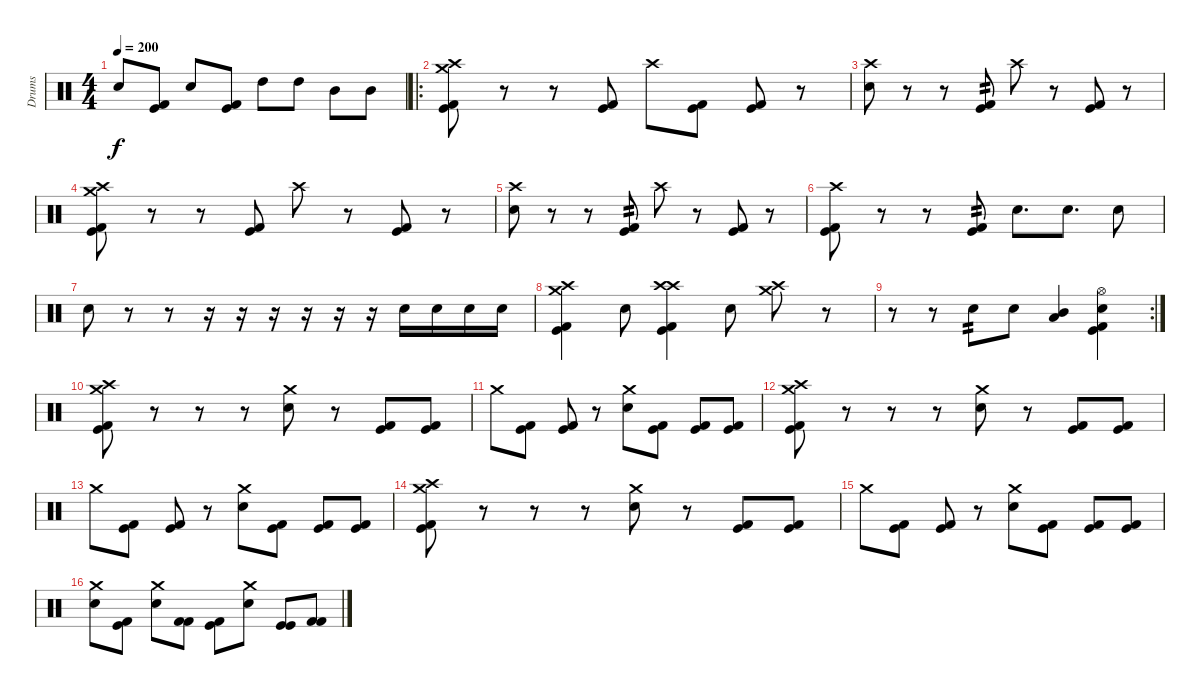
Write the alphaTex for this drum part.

\track ("Drums" "Drums") {instrument percussion}
\staff {score}
\articulation defaults
\ts (4 4)
\tempo 200
\clef neutral
\ks c "Electric Snare (hit)".8{dy f}
("Kick (hit) 2" "Kick (hit)").8 "Electric Snare (hit)".8 ("Kick (hit) 2" "Kick (hit)").8 "High Tom (hit)".8 "High Tom (hit)".8 "Mid Tom (hit)".8 "Mid Tom (hit)".8 |
\ro
("Crash medium (hit)" "Crash high (hit)" "Kick (hit) 2" "Kick (hit)").8 r.8 r.8 ("Kick (hit) 2" "Kick (hit)").8 "Crash high (hit)".8 ("Kick (hit) 2" "Kick (hit)").8 ("Kick (hit) 2" "Kick (hit)").8 r.8 |
("Crash high (hit)" "Electric Snare (hit)").8 r.8 r.8 ("Kick (hit) 2" "Kick (hit)").8{tp 2} "Crash high (hit)".8 r.8 ("Kick (hit) 2" "Kick (hit)").8 r.8 |
("Crash medium (hit)" "Crash high (hit)" "Kick (hit) 2" "Kick (hit)").8 r.8 r.8 ("Kick (hit) 2" "Kick (hit)").8 "Crash high (hit)".8 r.8 ("Kick (hit) 2" "Kick (hit)").8 r.8 |
("Crash high (hit)" "Electric Snare (hit)").8 r.8 r.8 ("Kick (hit) 2" "Kick (hit)").8{tp 2} "Crash high (hit)".8 r.8 ("Kick (hit) 2" "Kick (hit)").8 r.8 |
("Crash high (hit)" "Kick (hit) 2" "Kick (hit)").8 r.8 r.8 ("Kick (hit) 2" "Kick (hit)").8{tp 2} "Electric Snare (hit)".8{d} "Electric Snare (hit)".8{d} "Electric Snare (hit)".8 |
"Electric Snare (hit)".8 r.8 r.8 r.16 r.16 r.16 r.16 r.16 r.16 "Electric Snare (hit)".16 "Electric Snare (hit)".16 "Electric Snare (hit)".16 "Electric Snare (hit)".16 |
("Crash medium (hit)" "Crash high (hit)" "Kick (hit) 2" "Kick (hit)").4 "Electric Snare (hit)".8 ("Crash high (hit)" "Crash high (hit)" "Kick (hit) 2" "Kick (hit)").4 "Electric Snare (hit)".8 ("Crash medium (hit)" "Crash high (hit)").8 r.8 |
\rc 2
r.8 r.8 "Electric Snare (hit)".8{tp 2} "Electric Snare (hit)".8 ("Mid Tom (hit)" "Low Tom (hit)").4 ("Hi-Hat (open)" "Electric Snare (hit)" "Kick (hit) 2" "Kick (hit)").4 |
("Crash medium (hit)" "Crash high (hit)" "Kick (hit) 2" "Kick (hit)").8 r.8 r.8 r.8 ("Crash medium (hit)" "Electric Snare (hit)").8 r.8 ("Kick (hit) 2" "Kick (hit)").8 ("Kick (hit) 2" "Kick (hit)").8 |
"Crash medium (hit)".8 ("Kick (hit) 2" "Kick (hit)").8 ("Kick (hit) 2" "Kick (hit)").8 r.8 ("Crash medium (hit)" "Electric Snare (hit)").8 ("Kick (hit) 2" "Kick (hit)").8 ("Kick (hit) 2" "Kick (hit)").8 ("Kick (hit) 2" "Kick (hit)").8 |
("Crash medium (hit)" "Crash high (hit)" "Kick (hit) 2" "Kick (hit)").8 r.8 r.8 r.8 ("Crash medium (hit)" "Electric Snare (hit)").8 r.8 ("Kick (hit) 2" "Kick (hit)").8 ("Kick (hit) 2" "Kick (hit)").8 |
"Crash medium (hit)".8 ("Kick (hit) 2" "Kick (hit)").8 ("Kick (hit) 2" "Kick (hit)").8 r.8 ("Crash medium (hit)" "Electric Snare (hit)").8 ("Kick (hit) 2" "Kick (hit)").8 ("Kick (hit) 2" "Kick (hit)").8 ("Kick (hit) 2" "Kick (hit)").8 |
("Crash medium (hit)" "Crash high (hit)" "Kick (hit) 2" "Kick (hit)").8 r.8 r.8 r.8 ("Crash medium (hit)" "Electric Snare (hit)").8 r.8 ("Kick (hit) 2" "Kick (hit)").8 ("Kick (hit) 2" "Kick (hit)").8 |
"Crash medium (hit)".8 ("Kick (hit) 2" "Kick (hit)").8 ("Kick (hit) 2" "Kick (hit)").8 r.8 ("Crash medium (hit)" "Electric Snare (hit)").8 ("Kick (hit) 2" "Kick (hit)").8 ("Kick (hit) 2" "Kick (hit)").8 ("Kick (hit) 2" "Kick (hit)").8 |
("Crash medium (hit)" "Electric Snare (hit)").8 ("Kick (hit) 2" "Kick (hit)").8 ("Crash medium (hit)" "Electric Snare (hit)").8 ("Kick (hit) 2" "Kick (hit) 2").8 ("Kick (hit) 2" "Kick (hit)").8 ("Crash medium (hit)" "Electric Snare (hit)").8 ("Kick (hit)" "Kick (hit)").8 ("Kick (hit) 2" "Kick (hit) 2").8
